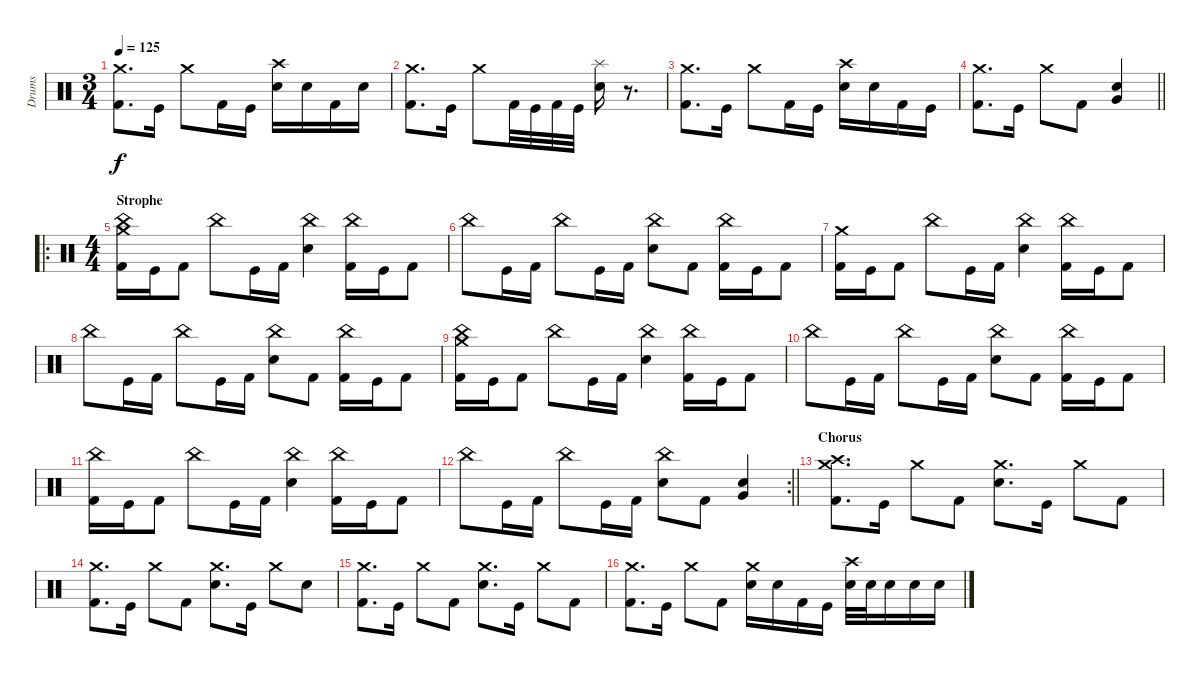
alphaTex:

\track ("Drums" "Drums") {instrument percussion}
\staff {score}
\articulation defaults
\ts (3 4)
\tempo 125
\clef neutral
\ks c
("Crash medium (hit)" "Kick (hit) 2").8{d dy f} "Kick (hit)".16 "Crash medium (hit)".8 "Kick (hit) 2".16 "Kick (hit)".16 ("Crash high (hit)" "Electric Snare (hit)").16 "Electric Snare (hit)".16 "Kick (hit) 2".16 "Electric Snare (hit)".16 |
("Crash medium (hit)" "Kick (hit) 2").8{d} "Kick (hit)".16 "Crash medium (hit)".8 "Kick (hit) 2".32 "Kick (hit)".32 "Kick (hit) 2".32 "Kick (hit)".32 ("Splash (hit)" "Electric Snare (hit)").16 r.8{d} |
("Crash medium (hit)" "Kick (hit) 2").8{d} "Kick (hit)".16 "Crash medium (hit)".8 "Kick (hit) 2".16 "Kick (hit)".16 ("Crash high (hit)" "Electric Snare (hit)").16 "Electric Snare (hit)".16 "Kick (hit) 2".16 "Kick (hit)".16 |
\barLineRight lightlight
("Crash medium (hit)" "Kick (hit) 2").8{d} "Kick (hit)".16 "Crash medium (hit)".8 "Kick (hit) 2".8 ("Electric Snare (hit)" "Very Low Tom (hit)").4 |
\ro
\ts (4 4)
\section ("" "Strophe")
("Crash medium (hit)" "China (hit)" "Kick (hit) 2").16 "Kick (hit)".16 "Kick (hit) 2".8 "China (hit)".8 "Kick (hit)".16 "Kick (hit) 2".16 ("China (hit)" "Electric Snare (hit)").4 ("China (hit)" "Kick (hit) 2").16 "Kick (hit)".16 "Kick (hit) 2".8 |
"China (hit)".8 "Kick (hit)".16 "Kick (hit) 2".16 "China (hit)".8 "Kick (hit)".16 "Kick (hit) 2".16 ("China (hit)" "Electric Snare (hit)").8 "Kick (hit) 2".8 ("China (hit)" "Kick (hit) 2").16 "Kick (hit)".16 "Kick (hit) 2".8 |
("Crash medium (hit)" "Kick (hit) 2").16 "Kick (hit)".16 "Kick (hit) 2".8 "China (hit)".8 "Kick (hit)".16 "Kick (hit) 2".16 ("China (hit)" "Electric Snare (hit)").4 ("China (hit)" "Kick (hit) 2").16 "Kick (hit)".16 "Kick (hit) 2".8 |
"China (hit)".8 "Kick (hit)".16 "Kick (hit) 2".16 "China (hit)".8 "Kick (hit)".16 "Kick (hit) 2".16 ("China (hit)" "Electric Snare (hit)").8 "Kick (hit) 2".8 ("China (hit)" "Kick (hit) 2").16 "Kick (hit)".16 "Kick (hit) 2".8 |
("Crash medium (hit)" "China (hit)" "Kick (hit) 2").16 "Kick (hit)".16 "Kick (hit) 2".8 "China (hit)".8 "Kick (hit)".16 "Kick (hit) 2".16 ("China (hit)" "Electric Snare (hit)").4 ("China (hit)" "Kick (hit) 2").16 "Kick (hit)".16 "Kick (hit) 2".8 |
"China (hit)".8 "Kick (hit)".16 "Kick (hit) 2".16 "China (hit)".8 "Kick (hit)".16 "Kick (hit) 2".16 ("China (hit)" "Electric Snare (hit)").8 "Kick (hit) 2".8 ("China (hit)" "Kick (hit) 2").16 "Kick (hit)".16 "Kick (hit) 2".8 |
("China (hit)" "Kick (hit) 2").16 "Kick (hit)".16 "Kick (hit) 2".8 "China (hit)".8 "Kick (hit)".16 "Kick (hit) 2".16 ("China (hit)" "Electric Snare (hit)").4 ("China (hit)" "Kick (hit) 2").16 "Kick (hit)".16 "Kick (hit) 2".8 |
\rc 2
\barLineRight lightlight "China (hit)".8 "Kick (hit)".16 "Kick (hit) 2".16 "China (hit)".8 "Kick (hit)".16 "Kick (hit) 2".16
("China (hit)" "Electric Snare (hit)").8 "Kick (hit) 2".8 ("Electric Snare (hit)" "Very Low Tom (hit)").4 |
\section ("" "Chorus")
("Crash medium (hit)" "Crash high (hit)" "Kick (hit) 2").8{d} "Kick (hit)".16 "Crash medium (hit)".8 "Kick (hit) 2".8 ("Crash medium (hit)" "Electric Snare (hit)").8{d} "Kick (hit)".16 "Crash medium (hit)".8 "Kick (hit) 2".8 |
("Crash medium (hit)" "Kick (hit) 2").8{d} "Kick (hit)".16 "Crash medium (hit)".8 "Kick (hit) 2".8 ("Crash medium (hit)" "Electric Snare (hit)").8{d} "Kick (hit)".16 "Crash medium (hit)".8 "Electric Snare (hit)".8 |
("Crash medium (hit)" "Kick (hit) 2").8{d} "Kick (hit)".16 "Crash medium (hit)".8 "Kick (hit) 2".8 ("Crash medium (hit)" "Electric Snare (hit)").8{d} "Kick (hit)".16 "Crash medium (hit)".8 "Kick (hit) 2".8 |
("Crash medium (hit)" "Kick (hit) 2").8{d} "Kick (hit)".16 "Crash medium (hit)".8 "Kick (hit) 2".8 ("Crash medium (hit)" "Electric Snare (hit)").16 "Electric Snare (hit)".16 "Kick (hit) 2".16 "Kick (hit)".16 ("Crash high (hit)" "Electric Snare (hit)").32 "Electric Snare (hit)".32 "Electric Snare (hit)".16 "Electric Snare (hit)".16 "Electric Snare (hit)".16
